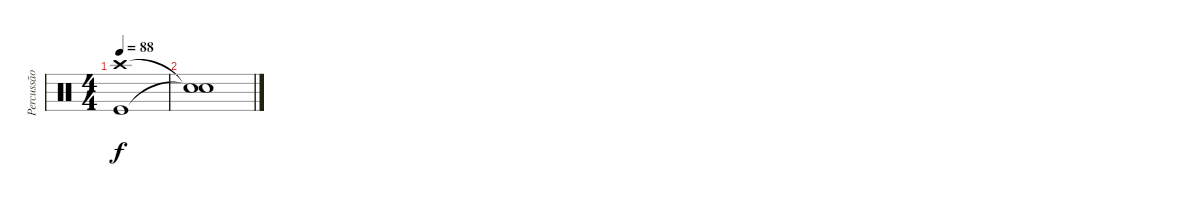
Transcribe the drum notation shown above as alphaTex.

\track ("Percussão" "Percussão") {instrument percussion}
\staff {score}
\articulation defaults
\ts (4 4)
\tempo 88
\clef neutral
\ks c
("Crash high (hit)" "Kick (hit)").1{dy f} |
("Snare (hit)"{t} "Snare (hit)"{t}).1
